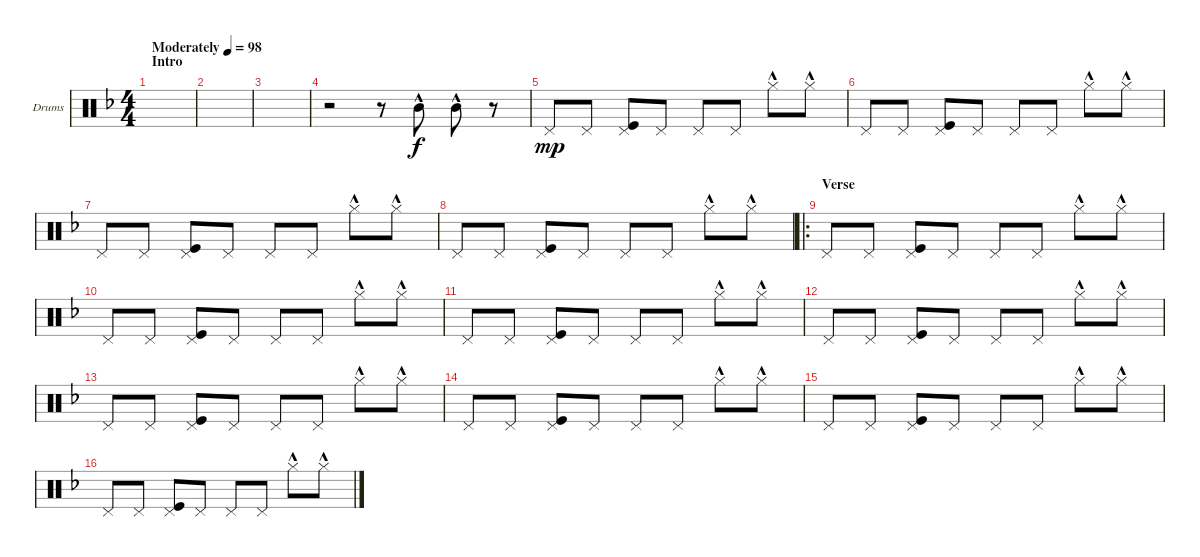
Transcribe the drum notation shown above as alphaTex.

\defaultSystemsLayout 4
\bracketExtendMode groupsimilarinstruments
\firstSystemTrackNameOrientation horizontal
\otherSystemsTrackNameOrientation horizontal
\track ("Drumkit" "Drums") {instrument percussion}
\staff {score}
\articulation defaults
\ts (4 4)
\section ("" "Intro")
\tempo (98 "Moderately")
\clef neutral
\scale
0.5
\ks f
|
\scale
0.25 |
\scale
0.25 |
\scale
0.333333 r.2 r.8 "Mid Tom (hit)"{hac}.8 "Mid Tom (hit)"{hac}.8 r.8 |
\scale
0.333333 "Pedal Hi-Hat (hit)".8{dy mp} "Pedal Hi-Hat (hit)".8 ("Pedal Hi-Hat (hit)" "Kick (hit)").8 "Pedal Hi-Hat (hit)".8 "Pedal Hi-Hat (hit)".8 "Pedal Hi-Hat (hit)".8 "Hi-Hat (closed)"{hac}.8 "Hi-Hat (closed)"{hac}.8 |
\scale
0.333333 "Pedal Hi-Hat (hit)".8 "Pedal Hi-Hat (hit)".8 ("Pedal Hi-Hat (hit)" "Kick (hit)").8 "Pedal Hi-Hat (hit)".8 "Pedal Hi-Hat (hit)".8 "Pedal Hi-Hat (hit)".8 "Hi-Hat (closed)"{hac}.8 "Hi-Hat (closed)"{hac}.8 |
\scale
0.311111 "Pedal Hi-Hat (hit)".8 "Pedal Hi-Hat (hit)".8 ("Pedal Hi-Hat (hit)" "Kick (hit)").8 "Pedal Hi-Hat (hit)".8 "Pedal Hi-Hat (hit)".8 "Pedal Hi-Hat (hit)".8 "Hi-Hat (closed)"{hac}.8 "Hi-Hat (closed)"{hac}.8 |
\scale
0.311111 "Pedal Hi-Hat (hit)".8 "Pedal Hi-Hat (hit)".8 ("Pedal Hi-Hat (hit)" "Kick (hit)").8 "Pedal Hi-Hat (hit)".8 "Pedal Hi-Hat (hit)".8 "Pedal Hi-Hat (hit)".8 "Hi-Hat (closed)"{hac}.8 "Hi-Hat (closed)"{hac}.8 |
\ro
\section ("" "Verse ")
\scale
0.377778 "Pedal Hi-Hat (hit)".8 "Pedal Hi-Hat (hit)".8 ("Pedal Hi-Hat (hit)" "Kick (hit)").8 "Pedal Hi-Hat (hit)".8 "Pedal Hi-Hat (hit)".8 "Pedal Hi-Hat (hit)".8 "Hi-Hat (closed)"{hac}.8 "Hi-Hat (closed)"{hac}.8 |
\scale
0.333333 "Pedal Hi-Hat (hit)".8 "Pedal Hi-Hat (hit)".8 ("Pedal Hi-Hat (hit)" "Kick (hit)").8 "Pedal Hi-Hat (hit)".8 "Pedal Hi-Hat (hit)".8 "Pedal Hi-Hat (hit)".8 "Hi-Hat (closed)"{hac}.8 "Hi-Hat (closed)"{hac}.8 |
\scale
0.333333 "Pedal Hi-Hat (hit)".8 "Pedal Hi-Hat (hit)".8 ("Pedal Hi-Hat (hit)" "Kick (hit)").8 "Pedal Hi-Hat (hit)".8 "Pedal Hi-Hat (hit)".8 "Pedal Hi-Hat (hit)".8 "Hi-Hat (closed)"{hac}.8 "Hi-Hat (closed)"{hac}.8 |
\scale
0.333333 "Pedal Hi-Hat (hit)".8 "Pedal Hi-Hat (hit)".8 ("Pedal Hi-Hat (hit)" "Kick (hit)").8 "Pedal Hi-Hat (hit)".8 "Pedal Hi-Hat (hit)".8 "Pedal Hi-Hat (hit)".8 "Hi-Hat (closed)"{hac}.8 "Hi-Hat (closed)"{hac}.8 |
\scale
0.333333 "Pedal Hi-Hat (hit)".8 "Pedal Hi-Hat (hit)".8 ("Pedal Hi-Hat (hit)" "Kick (hit)").8 "Pedal Hi-Hat (hit)".8 "Pedal Hi-Hat (hit)".8 "Pedal Hi-Hat (hit)".8 "Hi-Hat (closed)"{hac}.8 "Hi-Hat (closed)"{hac}.8 |
\scale
0.333333 "Pedal Hi-Hat (hit)".8 "Pedal Hi-Hat (hit)".8 ("Pedal Hi-Hat (hit)" "Kick (hit)").8 "Pedal Hi-Hat (hit)".8 "Pedal Hi-Hat (hit)".8 "Pedal Hi-Hat (hit)".8 "Hi-Hat (closed)"{hac}.8 "Hi-Hat (closed)"{hac}.8 |
\scale
0.333333 "Pedal Hi-Hat (hit)".8 "Pedal Hi-Hat (hit)".8 ("Pedal Hi-Hat (hit)" "Kick (hit)").8 "Pedal Hi-Hat (hit)".8 "Pedal Hi-Hat (hit)".8 "Pedal Hi-Hat (hit)".8 "Hi-Hat (closed)"{hac}.8 "Hi-Hat (closed)"{hac}.8 |
\scale
0.333333 "Pedal Hi-Hat (hit)".8 "Pedal Hi-Hat (hit)".8 ("Pedal Hi-Hat (hit)" "Kick (hit)").8 "Pedal Hi-Hat (hit)".8 "Pedal Hi-Hat (hit)".8 "Pedal Hi-Hat (hit)".8 "Hi-Hat (closed)"{hac}.8 "Hi-Hat (closed)"{hac}.8
